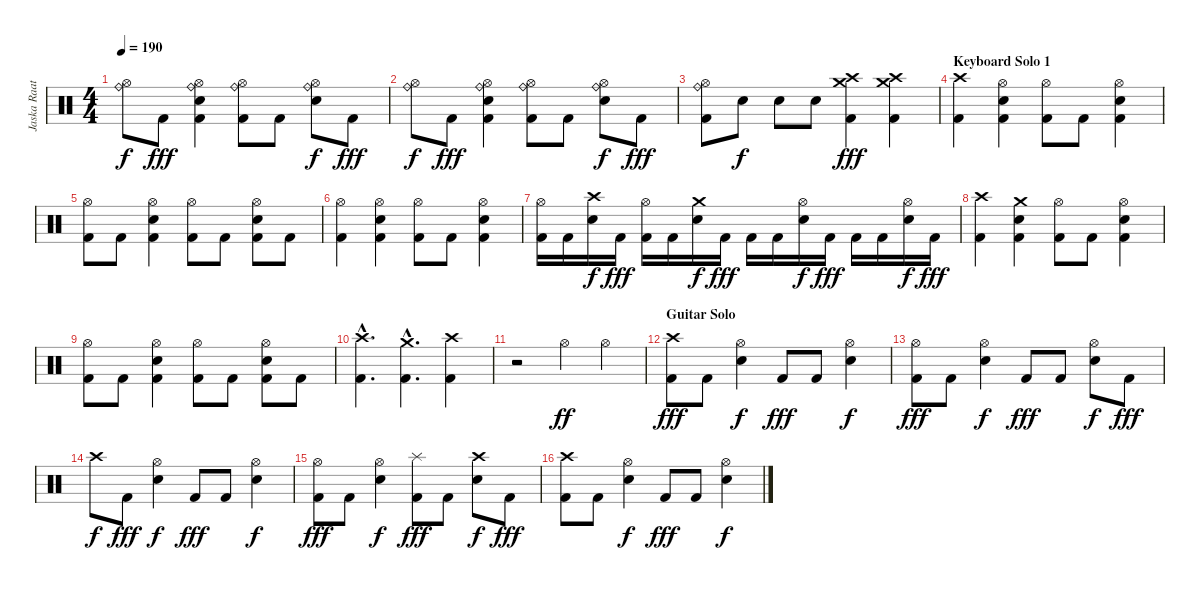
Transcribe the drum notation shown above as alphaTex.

\track ("Jaska Raatikainen (Drums)" "Jaska Raat") {instrument percussion}
\staff {score}
\articulation defaults
\ts (4 4)
\tempo 190
\clef neutral
\ks c
("Hi-Hat (open)" "Ride (bell)").8{dy f} "Kick (hit) 2".8{dy fff} ("Hi-Hat (open)" "Ride (bell)" "Electric Snare (hit)" "Kick (hit) 2").4 ("Hi-Hat (open)" "Ride (bell)" "Kick (hit) 2").8 "Kick (hit) 2".8 ("Hi-Hat (open)" "Ride (bell)" "Electric Snare (hit)").8{dy f} "Kick (hit) 2".8{dy fff} |
("Hi-Hat (open)" "Ride (bell)").8{dy f} "Kick (hit) 2".8{dy fff} ("Hi-Hat (open)" "Ride (bell)" "Electric Snare (hit)" "Kick (hit) 2").4 ("Hi-Hat (open)" "Ride (bell)" "Kick (hit) 2").8 "Kick (hit) 2".8 ("Hi-Hat (open)" "Ride (bell)" "Electric Snare (hit)").8{dy f} "Kick (hit) 2".8{dy fff} |
("Hi-Hat (open)" "Ride (bell)" "Kick (hit) 2").8 "Electric Snare (hit)".8{dy f} "Electric Snare (hit)".8 "Electric Snare (hit)".8 ("Crash high (hit)" "Crash medium (hit)" "Kick (hit) 2").4{dy fff} ("Crash medium (hit)" "Crash high (hit)" "Kick (hit) 2").4 |
\section ("" "Keyboard Solo 1")
("Crash high (hit)" "Kick (hit) 2").4 ("Hi-Hat (open)" "Electric Snare (hit)" "Kick (hit) 2").4 ("Hi-Hat (open)" "Kick (hit) 2").8 "Kick (hit) 2".8 ("Hi-Hat (open)" "Electric Snare (hit)" "Kick (hit) 2").4 |
("Hi-Hat (open)" "Kick (hit) 2").8 "Kick (hit) 2".8 ("Hi-Hat (open)" "Electric Snare (hit)" "Kick (hit) 2").4 ("Hi-Hat (open)" "Kick (hit) 2").8 "Kick (hit) 2".8 ("Hi-Hat (open)" "Electric Snare (hit)" "Kick (hit) 2").8 "Kick (hit) 2".8 |
("Hi-Hat (open)" "Kick (hit) 2").4 ("Hi-Hat (open)" "Electric Snare (hit)" "Kick (hit) 2").4 ("Hi-Hat (open)" "Kick (hit) 2").8 "Kick (hit) 2".8 ("Hi-Hat (open)" "Electric Snare (hit)" "Kick (hit) 2").4 |
("Hi-Hat (open)" "Kick (hit) 2").16 "Kick (hit) 2".16 ("Crash high (hit)" "Electric Snare (hit)").16{dy f} "Kick (hit) 2".16{dy fff} ("Hi-Hat (open)" "Kick (hit) 2").16 "Kick (hit) 2".16 ("Crash medium (hit)" "Electric Snare (hit)").16{dy f} "Kick (hit) 2".16{dy fff} "Kick (hit) 2".16 "Kick (hit) 2".16 ("Hi-Hat (open)" "Electric Snare (hit)").16{dy f} "Kick (hit) 2".16{dy fff} "Kick (hit) 2".16 "Kick (hit) 2".16 ("Hi-Hat (open)" "Electric Snare (hit)").16{dy f} "Kick (hit) 2".16{dy fff} |
("Crash high (hit)" "Kick (hit) 2").4 ("Crash medium (hit)" "Electric Snare (hit)" "Kick (hit) 2").4 ("Hi-Hat (open)" "Kick (hit) 2").8 "Kick (hit) 2".8 ("Hi-Hat (open)" "Electric Snare (hit)" "Kick (hit) 2").4 |
("Hi-Hat (open)" "Kick (hit) 2").8 "Kick (hit) 2".8 ("Hi-Hat (open)" "Electric Snare (hit)" "Kick (hit) 2").4 ("Hi-Hat (open)" "Kick (hit) 2").8 "Kick (hit) 2".8 ("Hi-Hat (open)" "Electric Snare (hit)" "Kick (hit) 2").8 "Kick (hit) 2".8 |
("Crash high (hit)"{hac} "Kick (hit) 2"{hac}).4{d} ("Crash medium (hit)"{hac} "Kick (hit) 2"{hac}).4{d} ("Crash high (hit)" "Kick (hit) 2").4 |
r.2 "Hi-Hat (open)".4{dy ff} "Hi-Hat (open)".4 |
\section ("" "Guitar Solo")
("Crash high (hit)" "Kick (hit) 2").8{dy fff} "Kick (hit) 2".8 ("Hi-Hat (open)" "Electric Snare (hit)").4{dy f} "Kick (hit) 2".8{dy fff} "Kick (hit) 2".8 ("Hi-Hat (open)" "Electric Snare (hit)").4{dy f} |
("Hi-Hat (open)" "Kick (hit) 2").8{dy fff} "Kick (hit) 2".8 ("Hi-Hat (open)" "Electric Snare (hit)").4{dy f} "Kick (hit) 2".8{dy fff} "Kick (hit) 2".8 ("Hi-Hat (open)" "Electric Snare (hit)").8{dy f} "Kick (hit) 2".8{dy fff} |
"Crash high (hit)".8{dy f} "Kick (hit) 2".8{dy fff} ("Hi-Hat (open)" "Electric Snare (hit)").4{dy f} "Kick (hit) 2".8{dy fff} "Kick (hit) 2".8 ("Hi-Hat (open)" "Electric Snare (hit)").4{dy f} |
("Hi-Hat (open)" "Kick (hit) 2").8{dy fff} "Kick (hit) 2".8 ("Hi-Hat (open)" "Electric Snare (hit)").4{dy f} ("Splash (hit)" "Kick (hit) 2").8{dy fff} "Kick (hit) 2".8 ("Crash high (hit)" "Electric Snare (hit)").8{dy f} "Kick (hit) 2".8{dy fff} |
("Crash high (hit)" "Kick (hit) 2").8 "Kick (hit) 2".8 ("Hi-Hat (open)" "Electric Snare (hit)").4{dy f} "Kick (hit) 2".8{dy fff} "Kick (hit) 2".8 ("Hi-Hat (open)" "Electric Snare (hit)").4{dy f}
